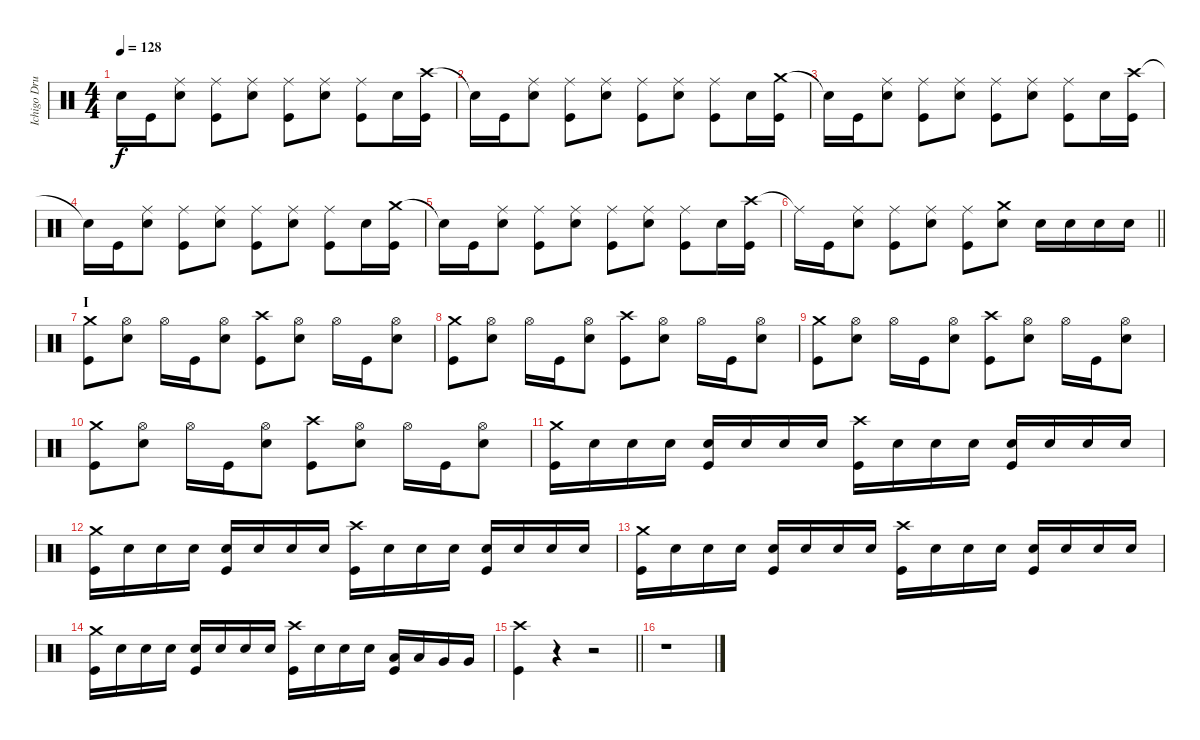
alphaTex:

\track ("Ichigo Drums" "Ichigo Dru") {instrument percussion}
\staff {score}
\articulation defaults
\ts (4 4)
\tempo 128
\clef neutral
\ks c "Snare (hit)"{t}.16{dy f} "Kick (hit)".16
("Ride (middle)" "Snare (hit) 2").8 ("Ride (middle)" "Kick (hit)").8 ("Ride (middle)" "Snare (hit) 2").8 ("Ride (middle)" "Kick (hit)").8 ("Ride (middle)" "Snare (hit) 2").8 ("Ride (middle)" "Kick (hit)").8 "Snare (hit) 2".16 ("Crash high (hit)" "Kick (hit)").16 |
"Snare (hit)"{t}.16 "Kick (hit)".16 ("Ride (middle)" "Snare (hit) 2").8 ("Ride (middle)" "Kick (hit)").8 ("Ride (middle)" "Snare (hit) 2").8 ("Ride (middle)" "Kick (hit)").8 ("Ride (middle)" "Snare (hit) 2").8 ("Ride (middle)" "Kick (hit)").8 "Snare (hit) 2".16 ("Crash medium (hit)" "Kick (hit)").16 |
"Snare (hit)"{t}.16 "Kick (hit)".16 ("Ride (middle)" "Snare (hit) 2").8 ("Ride (middle)" "Kick (hit)").8 ("Ride (middle)" "Snare (hit) 2").8 ("Ride (middle)" "Kick (hit)").8 ("Ride (middle)" "Snare (hit) 2").8 ("Ride (middle)" "Kick (hit)").8 "Snare (hit) 2".16 ("Crash high (hit)" "Kick (hit)").16 |
"Snare (hit)"{t}.16 "Kick (hit)".16 ("Ride (middle)" "Snare (hit) 2").8 ("Ride (middle)" "Kick (hit)").8 ("Ride (middle)" "Snare (hit) 2").8 ("Ride (middle)" "Kick (hit)").8 ("Ride (middle)" "Snare (hit) 2").8 ("Ride (middle)" "Kick (hit)").8 "Snare (hit) 2".16 ("Crash medium (hit)" "Kick (hit)").16 |
"Snare (hit)"{t}.16 "Kick (hit)".16 ("Ride (middle)" "Snare (hit) 2").8 ("Ride (middle)" "Kick (hit)").8 ("Ride (middle)" "Snare (hit) 2").8 ("Ride (middle)" "Kick (hit)").8 ("Ride (middle)" "Snare (hit) 2").8 ("Ride (middle)" "Kick (hit)").8 "Snare (hit) 2".16 ("Crash high (hit)" "Kick (hit)").16 |
\barLineRight lightlight "Ride (middle)"{t}.16 "Kick (hit)".16
("Ride (middle)" "Snare (hit) 2").8 ("Ride (middle)" "Kick (hit)").8 ("Ride (middle)" "Snare (hit) 2").8 ("Ride (middle)" "Kick (hit)").8 ("Crash medium (hit)" "Snare (hit) 2").8 "Snare (hit) 2".16 "Snare (hit) 2".16 "Snare (hit) 2".16 "Snare (hit) 2".16 |
\section ("" "I")
("Crash medium (hit)" "Kick (hit)").8 ("Hi-Hat (open)" "Snare (hit) 2").8 "Hi-Hat (open)".16 "Kick (hit)".16 ("Hi-Hat (open)" "Snare (hit) 2").8 ("Crash high (hit)" "Kick (hit)").8 ("Hi-Hat (open)" "Snare (hit) 2").8 "Hi-Hat (open)".16 "Kick (hit)".16 ("Hi-Hat (open)" "Snare (hit) 2").8 |
("Crash medium (hit)" "Kick (hit)").8 ("Hi-Hat (open)" "Snare (hit) 2").8 "Hi-Hat (open)".16 "Kick (hit)".16 ("Hi-Hat (open)" "Snare (hit) 2").8 ("Crash high (hit)" "Kick (hit)").8 ("Hi-Hat (open)" "Snare (hit) 2").8 "Hi-Hat (open)".16 "Kick (hit)".16 ("Hi-Hat (open)" "Snare (hit) 2").8 |
("Crash medium (hit)" "Kick (hit)").8 ("Hi-Hat (open)" "Snare (hit) 2").8 "Hi-Hat (open)".16 "Kick (hit)".16 ("Hi-Hat (open)" "Snare (hit) 2").8 ("Crash high (hit)" "Kick (hit)").8 ("Hi-Hat (open)" "Snare (hit) 2").8 "Hi-Hat (open)".16 "Kick (hit)".16 ("Hi-Hat (open)" "Snare (hit) 2").8 |
("Crash medium (hit)" "Kick (hit)").8 ("Hi-Hat (open)" "Snare (hit) 2").8 "Hi-Hat (open)".16 "Kick (hit)".16 ("Hi-Hat (open)" "Snare (hit) 2").8 ("Crash high (hit)" "Kick (hit)").8 ("Hi-Hat (open)" "Snare (hit) 2").8 "Hi-Hat (open)".16 "Kick (hit)".16 ("Hi-Hat (open)" "Snare (hit) 2").8 |
("Crash medium (hit)" "Kick (hit)").16 "Snare (hit) 2".16 "Snare (hit) 2".16 "Snare (hit) 2".16 ("Snare (hit) 2" "Kick (hit)").16 "Snare (hit) 2".16 "Snare (hit) 2".16 "Snare (hit) 2".16 ("Crash high (hit)" "Kick (hit)").16 "Snare (hit) 2".16 "Snare (hit) 2".16 "Snare (hit) 2".16 ("Snare (hit) 2" "Kick (hit)").16 "Snare (hit) 2".16 "Snare (hit) 2".16 "Snare (hit) 2".16 |
("Crash medium (hit)" "Kick (hit)").16 "Snare (hit) 2".16 "Snare (hit) 2".16 "Snare (hit) 2".16 ("Snare (hit) 2" "Kick (hit)").16 "Snare (hit) 2".16 "Snare (hit) 2".16 "Snare (hit) 2".16 ("Crash high (hit)" "Kick (hit)").16 "Snare (hit) 2".16 "Snare (hit) 2".16 "Snare (hit) 2".16 ("Snare (hit) 2" "Kick (hit)").16 "Snare (hit) 2".16 "Snare (hit) 2".16 "Snare (hit) 2".16 |
("Crash medium (hit)" "Kick (hit)").16 "Snare (hit) 2".16 "Snare (hit) 2".16 "Snare (hit) 2".16 ("Snare (hit) 2" "Kick (hit)").16 "Snare (hit) 2".16 "Snare (hit) 2".16 "Snare (hit) 2".16 ("Crash high (hit)" "Kick (hit)").16 "Snare (hit) 2".16 "Snare (hit) 2".16 "Snare (hit) 2".16 ("Snare (hit) 2" "Kick (hit)").16 "Snare (hit) 2".16 "Snare (hit) 2".16 "Snare (hit) 2".16 |
("Crash medium (hit)" "Kick (hit)").16 "Snare (hit) 2".16 "Snare (hit) 2".16 "Snare (hit) 2".16 ("Snare (hit) 2" "Kick (hit)").16 "Snare (hit) 2".16 "Snare (hit) 2".16 "Snare (hit) 2".16 ("Crash high (hit)" "Kick (hit)").16 "Snare (hit) 2".16 "Snare (hit) 2".16 "Snare (hit) 2".16 ("Low Tom (hit)" "Kick (hit)").16 "Low Tom (hit)".16 "Very Low Tom (hit)".16 "Very Low Tom (hit)".16 |
\barLineRight lightlight
("Crash high (hit)" "Kick (hit)").4 r.4 r.2 |
r.1
